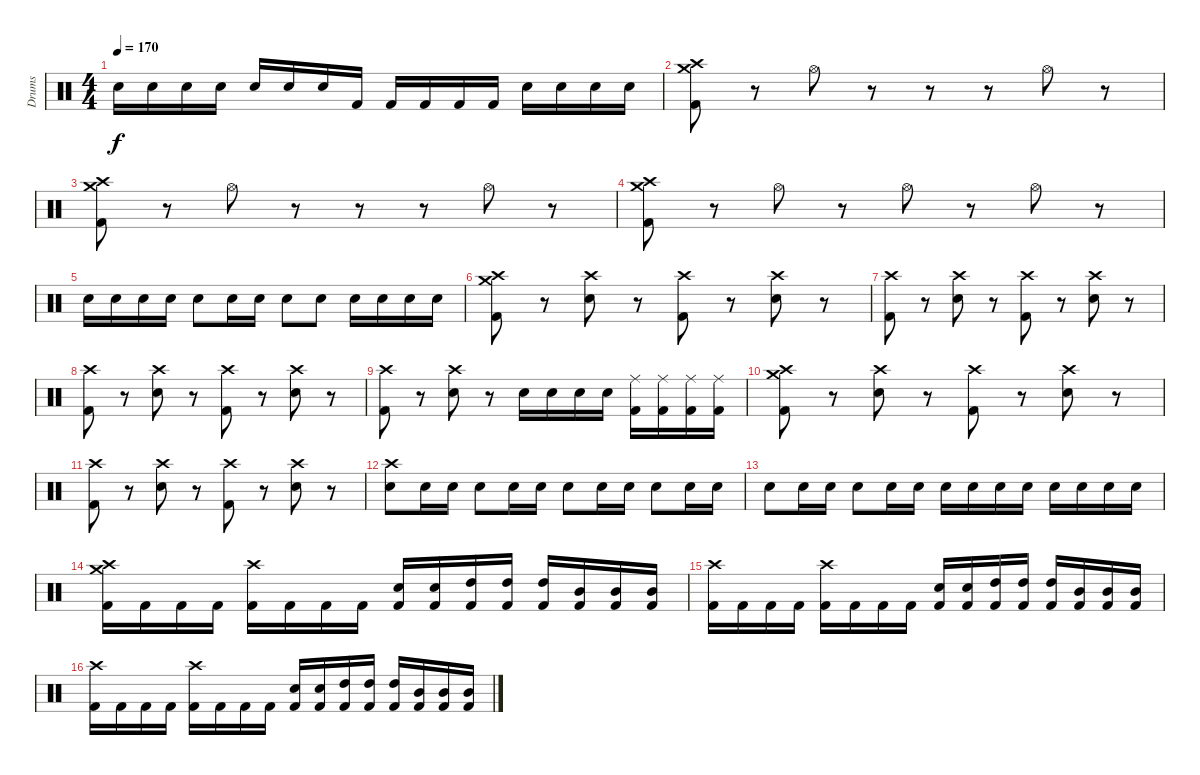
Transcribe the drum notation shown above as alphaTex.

\track ("Drums" "Drums") {instrument percussion}
\staff {score}
\articulation defaults
\ts (4 4)
\tempo 170
\clef neutral
\ks c "Snare (hit) 2".16{dy f} "Snare (hit) 2".16 "Snare (hit) 2".16 "Snare (hit) 2".16 "Snare (hit) 2".16 "Snare (hit) 2".16 "Snare (hit) 2".16 "Kick (hit) 2".16 "Kick (hit) 2".16 "Kick (hit) 2".16 "Kick (hit) 2".16 "Kick (hit) 2".16 "Snare (hit) 2".16 "Snare (hit) 2".16 "Snare (hit) 2".16 "Snare (hit) 2".16
|
("Crash medium (hit)" "Crash high (hit)" "Kick (hit) 2").8 r.8 "Hi-Hat (open)".8 r.8 r.8 r.8 "Hi-Hat (open)".8 r.8 |
("Crash medium (hit)" "Crash high (hit)" "Kick (hit) 2").8 r.8 "Hi-Hat (open)".8 r.8 r.8 r.8 "Hi-Hat (open)".8 r.8 |
("Crash medium (hit)" "Crash high (hit)" "Kick (hit) 2").8 r.8 "Hi-Hat (open)".8 r.8 "Hi-Hat (open)".8 r.8 "Hi-Hat (open)".8 r.8 |
"Snare (hit) 2".16 "Snare (hit) 2".16 "Snare (hit) 2".16 "Snare (hit) 2".16 "Snare (hit) 2".8 "Snare (hit) 2".16 "Snare (hit) 2".16 "Snare (hit) 2".8 "Snare (hit) 2".8 "Snare (hit) 2".16 "Snare (hit) 2".16 "Snare (hit) 2".16 "Snare (hit) 2".16 |
("Crash medium (hit)" "Crash high (hit)" "Kick (hit) 2").8 r.8 ("Crash high (hit)" "Snare (hit) 2").8 r.8 ("Crash high (hit)" "Kick (hit) 2").8 r.8 ("Crash high (hit)" "Snare (hit) 2").8 r.8 |
("Crash high (hit)" "Kick (hit) 2").8 r.8 ("Crash high (hit)" "Snare (hit) 2").8 r.8 ("Crash high (hit)" "Kick (hit) 2").8 r.8 ("Crash high (hit)" "Snare (hit) 2").8 r.8 |
("Crash high (hit)" "Kick (hit) 2").8 r.8 ("Crash high (hit)" "Snare (hit) 2").8 r.8 ("Crash high (hit)" "Kick (hit) 2").8 r.8 ("Crash high (hit)" "Snare (hit) 2").8 r.8 |
("Crash high (hit)" "Kick (hit) 2").8 r.8 ("Crash high (hit)" "Snare (hit) 2").8 r.8 "Snare (hit) 2".16 "Snare (hit) 2".16 "Snare (hit) 2".16 "Snare (hit) 2".16 ("Ride (middle)" "Kick (hit) 2").16 ("Ride (middle)" "Kick (hit) 2").16 ("Ride (middle)" "Kick (hit) 2").16 ("Ride (middle)" "Kick (hit) 2").16 |
("Crash medium (hit)" "Crash high (hit)" "Kick (hit) 2").8 r.8 ("Crash high (hit)" "Snare (hit) 2").8 r.8 ("Crash high (hit)" "Kick (hit) 2").8 r.8 ("Crash high (hit)" "Snare (hit) 2").8 r.8 |
("Crash high (hit)" "Kick (hit) 2").8 r.8 ("Crash high (hit)" "Snare (hit) 2").8 r.8 ("Crash high (hit)" "Kick (hit) 2").8 r.8 ("Crash high (hit)" "Snare (hit) 2").8 r.8 |
("Crash high (hit)" "Snare (hit) 2").8 "Snare (hit) 2".16 "Snare (hit) 2".16 "Snare (hit) 2".8 "Snare (hit) 2".16 "Snare (hit) 2".16 "Snare (hit) 2".8 "Snare (hit) 2".16 "Snare (hit) 2".16 "Snare (hit) 2".8 "Snare (hit) 2".16 "Snare (hit) 2".16 |
"Snare (hit) 2".8 "Snare (hit) 2".16 "Snare (hit) 2".16 "Snare (hit) 2".8 "Snare (hit) 2".16 "Snare (hit) 2".16 "Snare (hit) 2".16 "Snare (hit) 2".16 "Snare (hit) 2".16 "Snare (hit) 2".16 "Snare (hit) 2".16 "Snare (hit) 2".16 "Snare (hit) 2".16 "Snare (hit) 2".16 |
("Crash medium (hit)" "Crash high (hit)" "Kick (hit) 2").16 "Kick (hit) 2".16 "Kick (hit) 2".16 "Kick (hit) 2".16 ("Crash high (hit)" "Kick (hit) 2").16 "Kick (hit) 2".16 "Kick (hit) 2".16 "Kick (hit) 2".16 ("Snare (hit) 2" "Kick (hit) 2").16 ("Snare (hit) 2" "Kick (hit) 2").16 ("High Tom (hit)" "Kick (hit) 2").16 ("High Tom (hit)" "Kick (hit) 2").16 ("High Tom (hit)" "Kick (hit) 2").16 ("Mid Tom (hit)" "Kick (hit) 2").16 ("Mid Tom (hit)" "Kick (hit) 2").16 ("Mid Tom (hit)" "Kick (hit) 2").16 |
("Crash high (hit)" "Kick (hit) 2").16 "Kick (hit) 2".16 "Kick (hit) 2".16 "Kick (hit) 2".16 ("Crash high (hit)" "Kick (hit) 2").16 "Kick (hit) 2".16 "Kick (hit) 2".16 "Kick (hit) 2".16 ("Snare (hit) 2" "Kick (hit) 2").16 ("Snare (hit) 2" "Kick (hit) 2").16 ("High Tom (hit)" "Kick (hit) 2").16 ("High Tom (hit)" "Kick (hit) 2").16 ("High Tom (hit)" "Kick (hit) 2").16 ("Mid Tom (hit)" "Kick (hit) 2").16 ("Mid Tom (hit)" "Kick (hit) 2").16 ("Mid Tom (hit)" "Kick (hit) 2").16 |
("Crash high (hit)" "Kick (hit) 2").16 "Kick (hit) 2".16 "Kick (hit) 2".16 "Kick (hit) 2".16 ("Crash high (hit)" "Kick (hit) 2").16 "Kick (hit) 2".16 "Kick (hit) 2".16 "Kick (hit) 2".16 ("Snare (hit) 2" "Kick (hit) 2").16 ("Snare (hit) 2" "Kick (hit) 2").16 ("High Tom (hit)" "Kick (hit) 2").16 ("High Tom (hit)" "Kick (hit) 2").16 ("High Tom (hit)" "Kick (hit) 2").16 ("Mid Tom (hit)" "Kick (hit) 2").16 ("Mid Tom (hit)" "Kick (hit) 2").16 ("Mid Tom (hit)" "Kick (hit) 2").16
